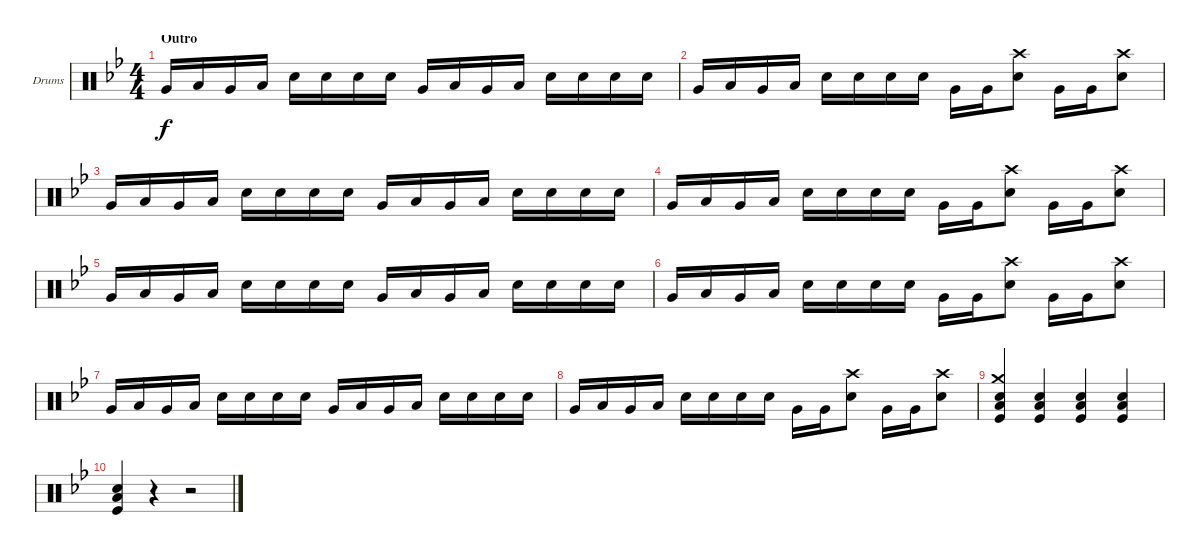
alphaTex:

\bracketExtendMode groupsimilarinstruments
\firstSystemTrackNameOrientation horizontal
\otherSystemsTrackNameOrientation horizontal
\track ("Drumkit" "Drums") {instrument percussion}
\staff {score}
\articulation defaults
\ts (4 4)
\section ("" "Outro")
\tempo (92 hide)
\clef neutral
\ks gminor "Very Low Tom (hit)".16{dy f} "Low Tom (hit)".16 "Very Low Tom (hit)".16 "Low Tom (hit)".16 "Snare (hit) 2".16 "Snare (hit) 2".16 "Snare (hit) 2".16 "Snare (hit) 2".16 "Very Low Tom (hit)".16 "Low Tom (hit)".16 "Very Low Tom (hit)".16 "Low Tom (hit)".16 "Snare (hit) 2".16 "Snare (hit) 2".16 "Snare (hit) 2".16 "Snare (hit) 2".16
|
"Very Low Tom (hit)".16 "Low Tom (hit)".16 "Very Low Tom (hit)".16 "Low Tom (hit)".16 "Snare (hit) 2".16 "Snare (hit) 2".16 "Snare (hit) 2".16 "Snare (hit) 2".16 "Very Low Tom (hit)".16 "Very Low Tom (hit)".16 ("Crash high (hit)" "Snare (hit) 2").8 "Very Low Tom (hit)".16 "Very Low Tom (hit)".16 ("Crash high (hit)" "Snare (hit) 2").8 |
"Very Low Tom (hit)".16 "Low Tom (hit)".16 "Very Low Tom (hit)".16 "Low Tom (hit)".16 "Snare (hit) 2".16 "Snare (hit) 2".16 "Snare (hit) 2".16 "Snare (hit) 2".16 "Very Low Tom (hit)".16 "Low Tom (hit)".16 "Very Low Tom (hit)".16 "Low Tom (hit)".16 "Snare (hit) 2".16 "Snare (hit) 2".16 "Snare (hit) 2".16 "Snare (hit) 2".16 |
"Very Low Tom (hit)".16 "Low Tom (hit)".16 "Very Low Tom (hit)".16 "Low Tom (hit)".16 "Snare (hit) 2".16 "Snare (hit) 2".16 "Snare (hit) 2".16 "Snare (hit) 2".16 "Very Low Tom (hit)".16 "Very Low Tom (hit)".16 ("Crash high (hit)" "Snare (hit) 2").8 "Very Low Tom (hit)".16 "Very Low Tom (hit)".16 ("Crash high (hit)" "Snare (hit) 2").8 |
"Very Low Tom (hit)".16 "Low Tom (hit)".16 "Very Low Tom (hit)".16 "Low Tom (hit)".16 "Snare (hit) 2".16 "Snare (hit) 2".16 "Snare (hit) 2".16 "Snare (hit) 2".16 "Very Low Tom (hit)".16 "Low Tom (hit)".16 "Very Low Tom (hit)".16 "Low Tom (hit)".16 "Snare (hit) 2".16 "Snare (hit) 2".16 "Snare (hit) 2".16 "Snare (hit) 2".16 |
"Very Low Tom (hit)".16 "Low Tom (hit)".16 "Very Low Tom (hit)".16 "Low Tom (hit)".16 "Snare (hit) 2".16 "Snare (hit) 2".16 "Snare (hit) 2".16 "Snare (hit) 2".16 "Very Low Tom (hit)".16 "Very Low Tom (hit)".16 ("Crash high (hit)" "Snare (hit) 2").8 "Very Low Tom (hit)".16 "Very Low Tom (hit)".16 ("Crash high (hit)" "Snare (hit) 2").8 |
"Very Low Tom (hit)".16 "Low Tom (hit)".16 "Very Low Tom (hit)".16 "Low Tom (hit)".16 "Snare (hit) 2".16 "Snare (hit) 2".16 "Snare (hit) 2".16 "Snare (hit) 2".16 "Very Low Tom (hit)".16 "Low Tom (hit)".16 "Very Low Tom (hit)".16 "Low Tom (hit)".16 "Snare (hit) 2".16 "Snare (hit) 2".16 "Snare (hit) 2".16 "Snare (hit) 2".16 |
"Very Low Tom (hit)".16 "Low Tom (hit)".16 "Very Low Tom (hit)".16 "Low Tom (hit)".16 "Snare (hit) 2".16 "Snare (hit) 2".16 "Snare (hit) 2".16 "Snare (hit) 2".16 "Very Low Tom (hit)".16 "Very Low Tom (hit)".16 ("Crash high (hit)" "Snare (hit) 2").8 "Very Low Tom (hit)".16 "Very Low Tom (hit)".16 ("Crash high (hit)" "Snare (hit) 2").8 |
("Crash medium (hit)" "Low Tom (hit)" "Snare (hit) 2" "Kick (hit)").4 ("Low Tom (hit)" "Snare (hit) 2" "Kick (hit)").4 ("Low Tom (hit)" "Snare (hit) 2" "Kick (hit)").4 ("Low Tom (hit)" "Snare (hit) 2" "Kick (hit)").4 |
("Low Tom (hit)" "Snare (hit) 2" "Kick (hit)").4 r.4 r.2
